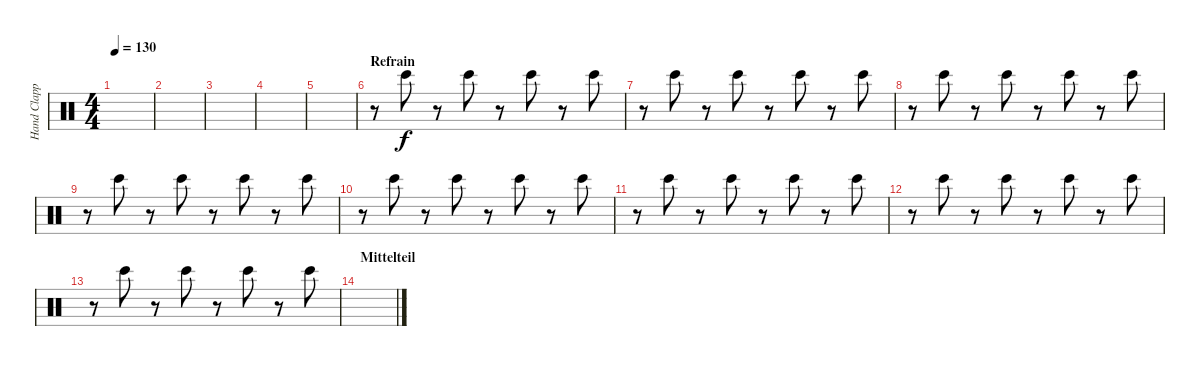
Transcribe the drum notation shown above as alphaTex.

\track ("Hand Clapping" "Hand Clapp") {instrument percussion}
\staff {score}
\articulation defaults
\ts (4 4)
\tempo 130
\clef neutral
\ks c
|
|
|
|
|
\section ("" "Refrain")
r.8 "Bongo High (hit)".8 r.8 "Bongo High (hit)".8 r.8 "Bongo High (hit)".8 r.8 "Bongo High (hit)".8 |
r.8 "Bongo High (hit)".8 r.8 "Bongo High (hit)".8 r.8 "Bongo High (hit)".8 r.8 "Bongo High (hit)".8 |
r.8 "Bongo High (hit)".8 r.8 "Bongo High (hit)".8 r.8 "Bongo High (hit)".8 r.8 "Bongo High (hit)".8 |
r.8 "Bongo High (hit)".8 r.8 "Bongo High (hit)".8 r.8 "Bongo High (hit)".8 r.8 "Bongo High (hit)".8 |
r.8 "Bongo High (hit)".8 r.8 "Bongo High (hit)".8 r.8 "Bongo High (hit)".8 r.8 "Bongo High (hit)".8 |
r.8 "Bongo High (hit)".8 r.8 "Bongo High (hit)".8 r.8 "Bongo High (hit)".8 r.8 "Bongo High (hit)".8 |
r.8 "Bongo High (hit)".8 r.8 "Bongo High (hit)".8 r.8 "Bongo High (hit)".8 r.8 "Bongo High (hit)".8 |
r.8 "Bongo High (hit)".8 r.8 "Bongo High (hit)".8 r.8 "Bongo High (hit)".8 r.8 "Bongo High (hit)".8 |
\section ("" "Mittelteil")
